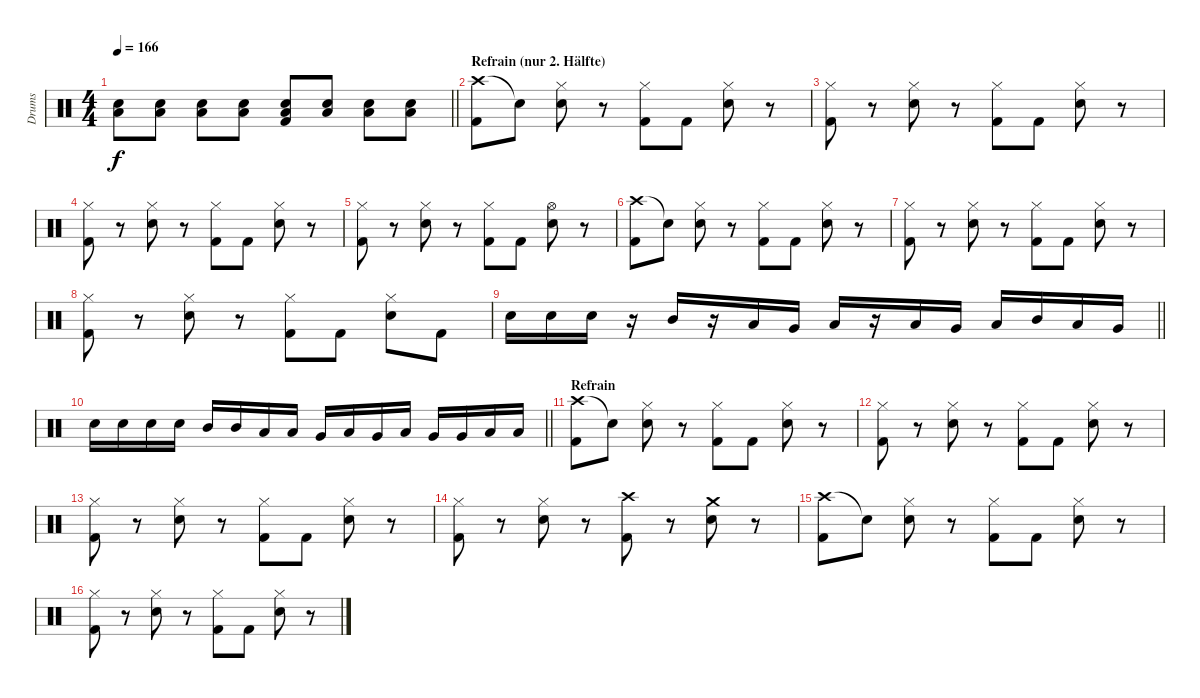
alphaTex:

\track ("Drums" "Drums") {instrument percussion}
\staff {score}
\articulation defaults
\ts (4 4)
\tempo 166
\clef neutral
\barLineRight lightlight
\ks c
("Electric Snare (hit)" "Low Floor Tom (hit)").8{dy f volume 15} ("Electric Snare (hit)" "Low Floor Tom (hit)").8 ("Electric Snare (hit)" "Low Floor Tom (hit)").8 ("Electric Snare (hit)" "Low Floor Tom (hit)").8 ("Kick (hit) 2" "Electric Snare (hit)" "Low Floor Tom (hit)").8 ("Electric Snare (hit)" "Low Floor Tom (hit)").8 ("Electric Snare (hit)" "Low Floor Tom (hit)").8 ("Electric Snare (hit)" "Low Floor Tom (hit)").8 |
\section ("" "Refrain (nur 2. Hälfte)")
("Crash high (hit)" "Kick (hit) 2").8 "Snare (hit)"{t}.8 ("Hi-Hat (closed)" "Electric Snare (hit)").8 r.8 ("Hi-Hat (closed)" "Kick (hit) 2").8 "Kick (hit) 2".8 ("Hi-Hat (closed)" "Electric Snare (hit)").8 r.8 |
("Hi-Hat (closed)" "Kick (hit) 2").8 r.8 ("Hi-Hat (closed)" "Electric Snare (hit)").8 r.8 ("Hi-Hat (closed)" "Kick (hit) 2").8 "Kick (hit) 2".8 ("Hi-Hat (closed)" "Electric Snare (hit)").8 r.8 |
("Hi-Hat (closed)" "Kick (hit) 2").8 r.8 ("Hi-Hat (closed)" "Electric Snare (hit)").8 r.8 ("Hi-Hat (closed)" "Kick (hit) 2").8 "Kick (hit) 2".8 ("Hi-Hat (closed)" "Electric Snare (hit)").8 r.8 |
("Hi-Hat (closed)" "Kick (hit) 2").8 r.8 ("Hi-Hat (closed)" "Electric Snare (hit)").8 r.8 ("Hi-Hat (closed)" "Kick (hit) 2").8 "Kick (hit) 2".8 ("Hi-Hat (open)" "Electric Snare (hit)").8 r.8 |
("Crash high (hit)" "Kick (hit) 2").8 "Snare (hit)"{t}.8 ("Hi-Hat (closed)" "Electric Snare (hit)").8 r.8 ("Hi-Hat (closed)" "Kick (hit) 2").8 "Kick (hit) 2".8 ("Hi-Hat (closed)" "Electric Snare (hit)").8 r.8 |
("Hi-Hat (closed)" "Kick (hit) 2").8 r.8 ("Hi-Hat (closed)" "Electric Snare (hit)").8 r.8 ("Hi-Hat (closed)" "Kick (hit) 2").8 "Kick (hit) 2".8 ("Hi-Hat (closed)" "Electric Snare (hit)").8 r.8 |
("Hi-Hat (closed)" "Kick (hit) 2").8 r.8 ("Hi-Hat (closed)" "Electric Snare (hit)").8 r.8 ("Hi-Hat (closed)" "Kick (hit) 2").8 "Kick (hit) 2".8 ("Hi-Hat (closed)" "Electric Snare (hit)").8 "Kick (hit) 2".8 |
\barLineRight lightlight "Electric Snare (hit)".16 "Electric Snare (hit)".16 "Electric Snare (hit)".16
r.16 "Mid Tom (hit)".16 r.16 "Low Tom (hit)".16 "Very Low Tom (hit)".16 "Low Tom (hit)".16 r.16 "Low Floor Tom (hit)".16 "Very Low Tom (hit)".16 "Low Tom (hit)".16 "Mid Tom (hit)".16 "Low Tom (hit)".16 "Very Low Tom (hit)".16 |
\barLineRight lightlight "Electric Snare (hit)".16 "Electric Snare (hit)".16 "Electric Snare (hit)".16 "Electric Snare (hit)".16 "Mid Tom (hit)".16 "Mid Tom (hit)".16 "Low Tom (hit)".16 "Low Tom (hit)".16 "Very Low Tom (hit)".16 "Low Floor Tom (hit)".16 "Very Low Tom (hit)".16 "Low Tom (hit)".16 "Very Low Tom (hit)".16 "Very Low Tom (hit)".16 "Low Floor Tom (hit)".16 "Low Floor Tom (hit)".16
|
\section ("" "Refrain")
("Crash high (hit)" "Kick (hit) 2").8 "Snare (hit)"{t}.8 ("Hi-Hat (closed)" "Electric Snare (hit)").8 r.8 ("Hi-Hat (closed)" "Kick (hit) 2").8 "Kick (hit) 2".8 ("Hi-Hat (closed)" "Electric Snare (hit)").8 r.8 |
("Hi-Hat (closed)" "Kick (hit) 2").8 r.8 ("Hi-Hat (closed)" "Electric Snare (hit)").8 r.8 ("Hi-Hat (closed)" "Kick (hit) 2").8 "Kick (hit) 2".8 ("Hi-Hat (closed)" "Electric Snare (hit)").8 r.8 |
("Hi-Hat (closed)" "Kick (hit) 2").8 r.8 ("Hi-Hat (closed)" "Electric Snare (hit)").8 r.8 ("Hi-Hat (closed)" "Kick (hit) 2").8 "Kick (hit) 2".8 ("Hi-Hat (closed)" "Electric Snare (hit)").8 r.8 |
("Hi-Hat (closed)" "Kick (hit) 2").8 r.8 ("Hi-Hat (closed)" "Electric Snare (hit)").8 r.8 ("Crash high (hit)" "Kick (hit) 2").8 r.8 ("Crash medium (hit)" "Electric Snare (hit)").8 r.8 |
("Crash high (hit)" "Kick (hit) 2").8 "Snare (hit)"{t}.8 ("Hi-Hat (closed)" "Electric Snare (hit)").8 r.8 ("Hi-Hat (closed)" "Kick (hit) 2").8 "Kick (hit) 2".8 ("Hi-Hat (closed)" "Electric Snare (hit)").8 r.8 |
("Hi-Hat (closed)" "Kick (hit) 2").8 r.8 ("Hi-Hat (closed)" "Electric Snare (hit)").8 r.8 ("Hi-Hat (closed)" "Kick (hit) 2").8 "Kick (hit) 2".8 ("Hi-Hat (closed)" "Electric Snare (hit)").8 r.8
